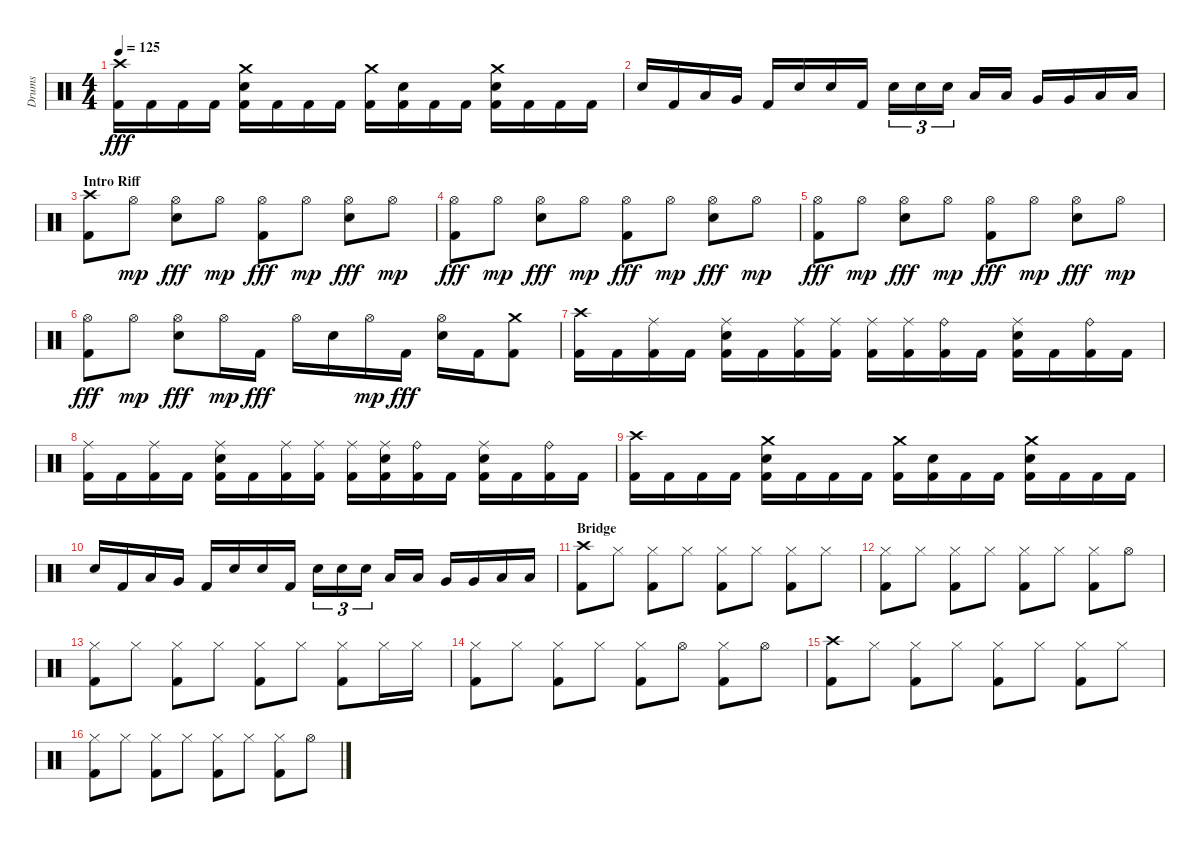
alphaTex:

\track ("Drums" "Drums") {instrument percussion}
\staff {score}
\articulation defaults
\ts (4 4)
\tempo 125
\clef neutral
\ks aminor
("Kick (hit) 2" "Crash high (hit)").16{dy fff} "Kick (hit) 2".16 "Kick (hit) 2".16 "Kick (hit) 2".16 ("Kick (hit) 2" "Snare (hit) 2" "Crash medium (hit)").16 "Kick (hit) 2".16 "Kick (hit) 2".16 "Kick (hit) 2".16 ("Kick (hit) 2" "Crash medium (hit)").16 ("Kick (hit) 2" "Snare (hit) 2").16 "Kick (hit) 2".16 "Kick (hit) 2".16 ("Kick (hit) 2" "Snare (hit) 2" "Crash medium (hit)").16 "Kick (hit) 2".16 "Kick (hit) 2".16 "Kick (hit) 2".16 |
"Snare (hit) 2".16 "Kick (hit) 2".16 "Low Tom (hit)".16 "Very Low Tom (hit)".16 "Kick (hit) 2".16 "Snare (hit) 2".16 "Snare (hit) 2".16 "Kick (hit) 2".16 "Snare (hit) 2".16{tu (3 2)} "Snare (hit) 2".16{tu (3 2)} "Snare (hit) 2".16{tu (3 2)} "Low Tom (hit)".16 "Low Tom (hit)".16 "Very Low Tom (hit)".16 "Very Low Tom (hit)".16 "Low Floor Tom (hit)".16 "Low Floor Tom (hit)".16 |
\section ("" "Intro Riff")
("Kick (hit) 2" "Crash high (hit)").8 "Hi-Hat (open)".8{dy mp} ("Snare (hit) 2" "Hi-Hat (open)").8{dy fff} "Hi-Hat (open)".8{dy mp} ("Kick (hit) 2" "Hi-Hat (open)").8{dy fff} "Hi-Hat (open)".8{dy mp} ("Snare (hit) 2" "Hi-Hat (open)").8{dy fff} "Hi-Hat (open)".8{dy mp} |
("Kick (hit) 2" "Hi-Hat (open)").8{dy fff} "Hi-Hat (open)".8{dy mp} ("Snare (hit) 2" "Hi-Hat (open)").8{dy fff} "Hi-Hat (open)".8{dy mp} ("Kick (hit) 2" "Hi-Hat (open)").8{dy fff} "Hi-Hat (open)".8{dy mp} ("Snare (hit) 2" "Hi-Hat (open)").8{dy fff} "Hi-Hat (open)".8{dy mp} |
("Kick (hit) 2" "Hi-Hat (open)").8{dy fff} "Hi-Hat (open)".8{dy mp} ("Snare (hit) 2" "Hi-Hat (open)").8{dy fff} "Hi-Hat (open)".8{dy mp} ("Kick (hit) 2" "Hi-Hat (open)").8{dy fff} "Hi-Hat (open)".8{dy mp} ("Snare (hit) 2" "Hi-Hat (open)").8{dy fff} "Hi-Hat (open)".8{dy mp} |
("Kick (hit) 2" "Hi-Hat (open)").8{dy fff} "Hi-Hat (open)".8{dy mp} ("Snare (hit) 2" "Hi-Hat (open)").8{dy fff} "Hi-Hat (open)".16{dy mp} "Kick (hit) 2".16{dy fff} "Hi-Hat (open)".16 "Snare (hit) 2".16 "Hi-Hat (open)".16{dy mp} "Kick (hit) 2".16{dy fff} ("Snare (hit) 2" "Hi-Hat (open)").16 "Kick (hit) 2".16 ("Kick (hit) 2" "Crash medium (hit)").8 |
("Kick (hit) 2" "Crash high (hit)").16 "Kick (hit) 2".16 ("Kick (hit) 2" "Ride (middle)").16 "Kick (hit) 2".16 ("Kick (hit) 2" "Snare (hit) 2" "Ride (middle)").16 "Kick (hit) 2".16 ("Kick (hit) 2" "Ride (middle)").16 ("Kick (hit) 2" "Ride (middle)").16 ("Kick (hit) 2" "Ride (middle)").16 ("Kick (hit) 2" "Ride (middle)").16 ("Kick (hit) 2" "Ride (bell)").16 "Kick (hit) 2".16 ("Kick (hit) 2" "Snare (hit) 2" "Ride (middle)").16 "Kick (hit) 2".16 ("Kick (hit) 2" "Ride (bell)").16 "Kick (hit) 2".16 |
("Kick (hit) 2" "Ride (middle)").16 "Kick (hit) 2".16 ("Kick (hit) 2" "Ride (middle)").16 "Kick (hit) 2".16 ("Kick (hit) 2" "Snare (hit) 2" "Ride (middle)").16 "Kick (hit) 2".16 ("Kick (hit) 2" "Ride (middle)").16 ("Kick (hit) 2" "Ride (middle)").16 ("Kick (hit) 2" "Ride (middle)").16 ("Kick (hit) 2" "Snare (hit) 2" "Ride (middle)").16 ("Kick (hit) 2" "Ride (bell)").16 "Kick (hit) 2".16 ("Kick (hit) 2" "Snare (hit) 2" "Ride (middle)").16 "Kick (hit) 2".16 ("Kick (hit) 2" "Ride (bell)").16 "Kick (hit) 2".16 |
("Kick (hit) 2" "Crash high (hit)").16 "Kick (hit) 2".16 "Kick (hit) 2".16 "Kick (hit) 2".16 ("Kick (hit) 2" "Snare (hit) 2" "Crash medium (hit)").16 "Kick (hit) 2".16 "Kick (hit) 2".16 "Kick (hit) 2".16 ("Kick (hit) 2" "Crash medium (hit)").16 ("Kick (hit) 2" "Snare (hit) 2").16 "Kick (hit) 2".16 "Kick (hit) 2".16 ("Kick (hit) 2" "Snare (hit) 2" "Crash medium (hit)").16 "Kick (hit) 2".16 "Kick (hit) 2".16 "Kick (hit) 2".16 |
"Snare (hit) 2".16 "Kick (hit) 2".16 "Low Tom (hit)".16 "Very Low Tom (hit)".16 "Kick (hit) 2".16 "Snare (hit) 2".16 "Snare (hit) 2".16 "Kick (hit) 2".16 "Snare (hit) 2".16{tu (3 2)} "Snare (hit) 2".16{tu (3 2)} "Snare (hit) 2".16{tu (3 2)} "Low Tom (hit)".16 "Low Tom (hit)".16 "Very Low Tom (hit)".16 "Very Low Tom (hit)".16 "Low Floor Tom (hit)".16 "Low Floor Tom (hit)".16 |
\section ("" "Bridge")
("Kick (hit) 2" "Crash high (hit)").8 "Hi-Hat (closed)".8 ("Kick (hit) 2" "Hi-Hat (closed)").8 "Hi-Hat (closed)".8 ("Kick (hit) 2" "Hi-Hat (closed)").8 "Hi-Hat (closed)".8 ("Kick (hit) 2" "Hi-Hat (closed)").8 "Hi-Hat (closed)".8 |
("Kick (hit) 2" "Hi-Hat (closed)").8 "Hi-Hat (closed)".8 ("Kick (hit) 2" "Hi-Hat (closed)").8 "Hi-Hat (closed)".8 ("Kick (hit) 2" "Hi-Hat (closed)").8 "Hi-Hat (closed)".8 ("Kick (hit) 2" "Hi-Hat (closed)").8 "Hi-Hat (open)".8 |
("Kick (hit) 2" "Hi-Hat (closed)").8 "Hi-Hat (closed)".8 ("Kick (hit) 2" "Hi-Hat (closed)").8 "Hi-Hat (closed)".8 ("Kick (hit) 2" "Hi-Hat (closed)").8 "Hi-Hat (closed)".8 ("Kick (hit) 2" "Hi-Hat (closed)").8 "Hi-Hat (closed)".16 "Hi-Hat (closed)".16 |
("Kick (hit) 2" "Hi-Hat (closed)").8 "Hi-Hat (closed)".8 ("Kick (hit) 2" "Hi-Hat (closed)").8 "Hi-Hat (closed)".8 ("Kick (hit) 2" "Hi-Hat (closed)").8 "Hi-Hat (open)".8 ("Kick (hit) 2" "Hi-Hat (closed)").8 "Hi-Hat (open)".8 |
("Kick (hit) 2" "Crash high (hit)").8 "Hi-Hat (closed)".8 ("Kick (hit) 2" "Hi-Hat (closed)").8 "Hi-Hat (closed)".8 ("Kick (hit) 2" "Hi-Hat (closed)").8 "Hi-Hat (closed)".8 ("Kick (hit) 2" "Hi-Hat (closed)").8 "Hi-Hat (closed)".8 |
("Kick (hit) 2" "Hi-Hat (closed)").8 "Hi-Hat (closed)".8 ("Kick (hit) 2" "Hi-Hat (closed)").8 "Hi-Hat (closed)".8 ("Kick (hit) 2" "Hi-Hat (closed)").8 "Hi-Hat (closed)".8 ("Kick (hit) 2" "Hi-Hat (closed)").8 "Hi-Hat (open)".8
